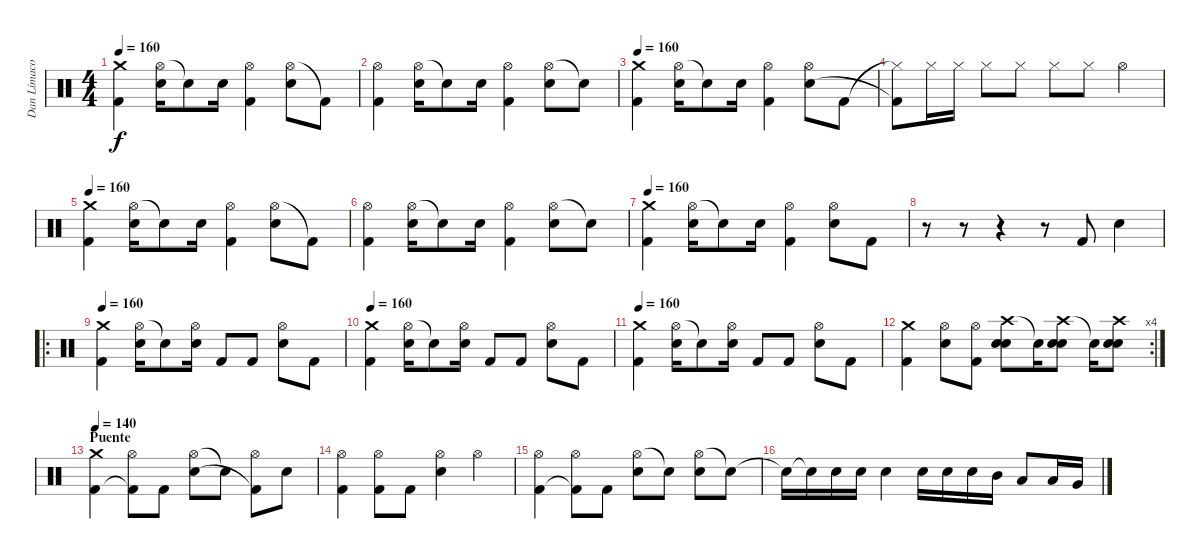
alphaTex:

\track ("Dan Límaco" "Dan Límaco") {instrument percussion}
\staff {score}
\articulation defaults
\ts (4 4)
\tempo 160
\clef neutral
\ks c
("Crash medium (hit)" "Kick (hit) 2").4{dy f} ("Hi-Hat (open)" "Snare (hit) 2").16 "Snare (hit) 2"{t}.8 "Snare (hit) 2".16 ("Hi-Hat (open)" "Kick (hit) 2").4 ("Hi-Hat (open)" "Snare (hit) 2").8 "Kick (hit) 2"{t}.8 |
("Hi-Hat (open)" "Kick (hit) 2").4 ("Hi-Hat (open)" "Snare (hit) 2").16 "Snare (hit) 2"{t}.8 "Snare (hit) 2".16 ("Hi-Hat (open)" "Kick (hit) 2").4 ("Hi-Hat (open)" "Snare (hit) 2").8 "Snare (hit)"{t}.8 |
\tempo 160
("Crash medium (hit)" "Kick (hit) 2").4 ("Hi-Hat (open)" "Snare (hit) 2").16 "Snare (hit) 2"{t}.8 "Snare (hit) 2".16 ("Hi-Hat (open)" "Kick (hit) 2").4 ("Hi-Hat (open)" "Snare (hit) 2").8 "Kick (hit) 2".8 |
("Hi-Hat (closed)"{t} "Kick (hit) 2"{t}).8 "Hi-Hat (closed)".16 "Hi-Hat (closed)".16 "Hi-Hat (closed)".8 "Hi-Hat (closed)".8 "Hi-Hat (closed)".8 "Hi-Hat (closed)".8 "Hi-Hat (open)".4 |
\tempo 160
("Crash medium (hit)" "Kick (hit) 2").4{volume 14} ("Hi-Hat (open)" "Snare (hit) 2").16 "Snare (hit) 2"{t}.8 "Snare (hit) 2".16 ("Hi-Hat (open)" "Kick (hit) 2").4 ("Hi-Hat (open)" "Snare (hit) 2").8 "Kick (hit) 2"{t}.8 |
("Hi-Hat (open)" "Kick (hit) 2").4 ("Hi-Hat (open)" "Snare (hit) 2").16 "Snare (hit) 2"{t}.8 "Snare (hit) 2".16 ("Hi-Hat (open)" "Kick (hit) 2").4 ("Hi-Hat (open)" "Snare (hit) 2").8 "Snare (hit)"{t}.8 |
\tempo 160
("Crash medium (hit)" "Kick (hit) 2").4 ("Hi-Hat (open)" "Snare (hit) 2").16 "Snare (hit) 2"{t}.8 "Snare (hit) 2".16 ("Hi-Hat (open)" "Kick (hit) 2").4 ("Hi-Hat (open)" "Snare (hit) 2").8 "Kick (hit) 2".8 |
r.8 r.8 r.4 r.8 "Kick (hit) 2".8 "Snare (hit) 2".4 |
\ro
\tempo 160
("Crash medium (hit)" "Kick (hit) 2").4{volume 14} ("Hi-Hat (open)" "Snare (hit) 2").16 "Snare (hit) 2"{t}.8 ("Hi-Hat (open)" "Snare (hit) 2").16 "Kick (hit) 2".8 "Kick (hit) 2".8 ("Hi-Hat (open)" "Snare (hit) 2").8 "Kick (hit) 2".8 |
\tempo 160
("Crash medium (hit)" "Kick (hit) 2").4 ("Hi-Hat (open)" "Snare (hit) 2").16 "Snare (hit) 2"{t}.8 ("Hi-Hat (open)" "Snare (hit) 2").16 "Kick (hit) 2".8 "Kick (hit) 2".8 ("Hi-Hat (open)" "Snare (hit) 2").8 "Kick (hit) 2".8 |
\tempo 160
("Crash medium (hit)" "Kick (hit) 2").4 ("Hi-Hat (open)" "Snare (hit) 2").16 "Snare (hit) 2"{t}.8 ("Hi-Hat (open)" "Snare (hit) 2").16 "Kick (hit) 2".8 "Kick (hit) 2".8 ("Hi-Hat (open)" "Snare (hit) 2").8 "Kick (hit) 2".8 |
\rc 4
("Crash medium (hit)" "Kick (hit) 2").4 ("Hi-Hat (open)" "Snare (hit) 2").8 ("Hi-Hat (open)" "Kick (hit) 2").8 ("Crash high (hit)" "Snare (hit) 2" "Snare (hit) 2").8 "Snare (hit) 2"{t}.16 ("Crash high (hit)" "Snare (hit) 2" "Snare (hit) 2").8 "Snare (hit) 2"{t}.16 ("Crash high (hit)" "Snare (hit) 2" "Snare (hit) 2").8 |
\section ("" "Puente")
\tempo 140
("Crash medium (hit)" "Kick (hit) 2").4 ("Hi-Hat (open)" "Kick (hit) 2"{t}).8 "Kick (hit) 2".8 ("Hi-Hat (open)" "Snare (hit) 2").8 "Snare (hit) 2"{t}.8 ("Hi-Hat (open)" "Kick (hit) 2"{t}).8 "Snare (hit) 2".8 |
("Hi-Hat (open)" "Kick (hit) 2").4 ("Hi-Hat (open)" "Kick (hit) 2").8 "Kick (hit) 2".8 ("Hi-Hat (open)" "Snare (hit) 2").4 "Hi-Hat (open)".4 |
("Hi-Hat (open)" "Kick (hit) 2").4 ("Hi-Hat (open)" "Kick (hit) 2"{t}).8 "Kick (hit) 2".8 ("Hi-Hat (open)" "Snare (hit) 2").8 "Snare (hit) 2"{t}.8 ("Hi-Hat (open)" "Snare (hit) 2").8 "Snare (hit) 2"{t}.8 |
"Snare (hit) 2"{t}.16 "Snare (hit) 2"{t}.16 "Snare (hit) 2".16 "Snare (hit) 2".16 "Snare (hit) 2".4 "Snare (hit) 2".16 "Snare (hit) 2".16 "Snare (hit) 2".16 "Mid Tom (hit)".16 "Low Tom (hit)".8 "Low Tom (hit)".16 "Very Low Tom (hit)".16
